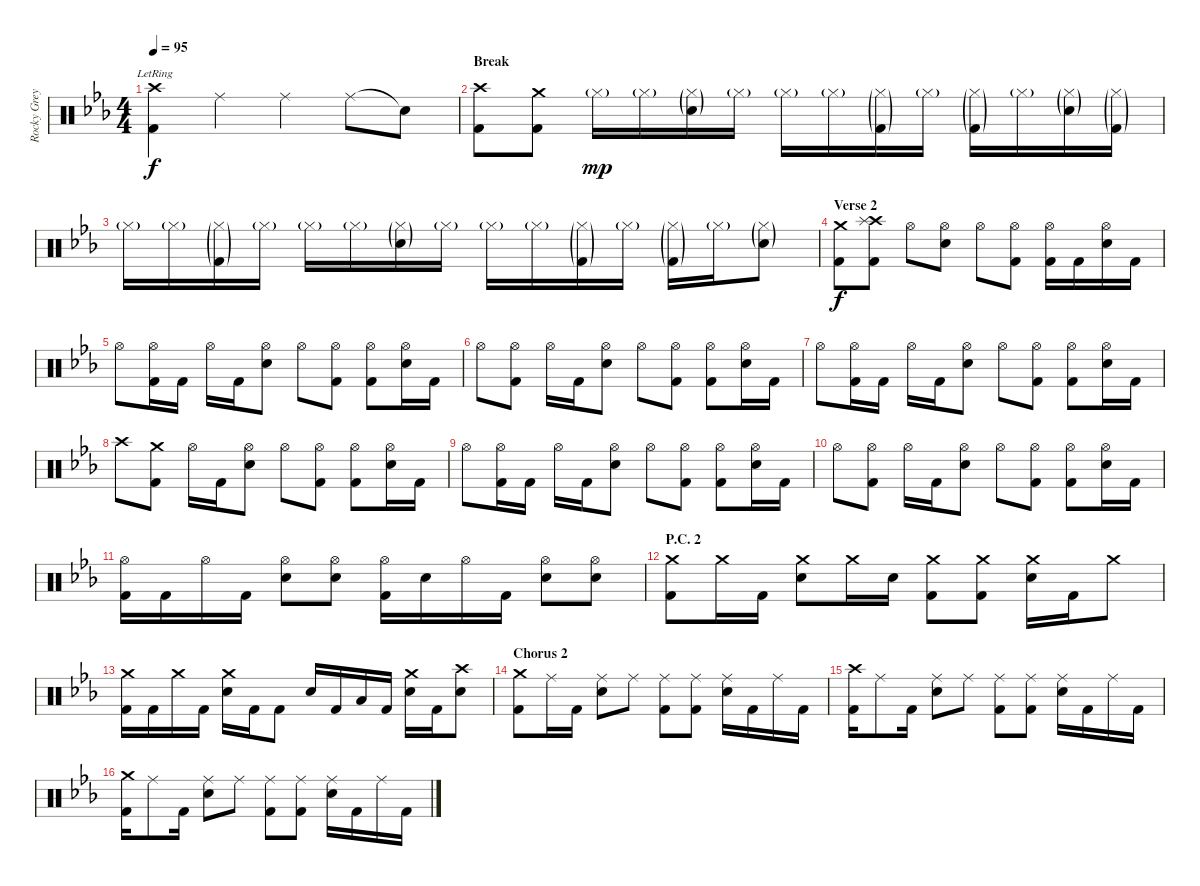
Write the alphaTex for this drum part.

\track ("Rocky Grey" "Rocky Grey") {instrument percussion}
\staff {score}
\articulation defaults
\ts (4 4)
\tempo 95
\clef neutral
\ks eb
("Crash high (hit)"{lr} "Kick (hit) 2").4{dy f} "Ride (middle)".4 "Ride (middle)".4 "Ride (middle)".8 "Snare (hit)"{t}.8 |
\section ("" "Break")
("Crash high (hit)" "Kick (hit) 2").8 ("Crash medium (hit)" "Kick (hit) 2").8 "Hi-Hat (closed)"{g}.16{dy mp} "Hi-Hat (closed)"{g}.16 ("Hi-Hat (closed)"{g} "Snare (hit) 2"{g}).16 "Hi-Hat (closed)"{g}.16 "Hi-Hat (closed)"{g}.16 "Hi-Hat (closed)"{g}.16 ("Hi-Hat (closed)"{g} "Kick (hit) 2"{g}).16 "Hi-Hat (closed)"{g}.16 ("Hi-Hat (closed)"{g} "Kick (hit) 2"{g}).16 "Hi-Hat (closed)"{g}.16 ("Hi-Hat (closed)"{g} "Snare (hit) 2"{g}).16 ("Hi-Hat (closed)"{g} "Kick (hit) 2"{g}).16 |
"Hi-Hat (closed)"{g}.16 "Hi-Hat (closed)"{g}.16 ("Hi-Hat (closed)"{g} "Kick (hit) 2"{g}).16 "Hi-Hat (closed)"{g}.16 "Hi-Hat (closed)"{g}.16 "Hi-Hat (closed)"{g}.16 ("Hi-Hat (closed)"{g} "Snare (hit) 2"{g}).16 "Hi-Hat (closed)"{g}.16 "Hi-Hat (closed)"{g}.16 "Hi-Hat (closed)"{g}.16 ("Hi-Hat (closed)"{g} "Kick (hit) 2"{g}).16 "Hi-Hat (closed)"{g}.16 ("Hi-Hat (closed)"{g} "Kick (hit) 2"{g}).16 "Hi-Hat (closed)"{g}.16 ("Hi-Hat (closed)"{g} "Snare (hit) 2"{g}).8 |
\section ("" "Verse 2")
("Crash medium (hit)" "Kick (hit) 2").8{dy f} ("Crash high (hit)" "Splash (hit)" "Kick (hit) 2").8 "Hi-Hat (open)".8 ("Hi-Hat (open)" "Snare (hit) 2").8 "Hi-Hat (open)".8 ("Hi-Hat (open)" "Kick (hit) 2").8 ("Hi-Hat (open)" "Kick (hit) 2").16 "Kick (hit) 2".16 ("Hi-Hat (open)" "Snare (hit) 2").16 "Kick (hit) 2".16 |
"Hi-Hat (open)".8 ("Hi-Hat (open)" "Kick (hit) 2").16 "Kick (hit) 2".16 "Hi-Hat (open)".16 "Kick (hit) 2".16 ("Hi-Hat (open)" "Snare (hit) 2").8 "Hi-Hat (open)".8 ("Hi-Hat (open)" "Kick (hit) 2").8 ("Hi-Hat (open)" "Kick (hit) 2").8 ("Hi-Hat (open)" "Snare (hit) 2").16 "Kick (hit) 2".16 |
"Hi-Hat (open)".8 ("Hi-Hat (open)" "Kick (hit) 2").8 "Hi-Hat (open)".16 "Kick (hit) 2".16 ("Hi-Hat (open)" "Snare (hit) 2").8 "Hi-Hat (open)".8 ("Hi-Hat (open)" "Kick (hit) 2").8 ("Hi-Hat (open)" "Kick (hit) 2").8 ("Hi-Hat (open)" "Snare (hit) 2").16 "Kick (hit) 2".16 |
"Hi-Hat (open)".8 ("Hi-Hat (open)" "Kick (hit) 2").16 "Kick (hit) 2".16 "Hi-Hat (open)".16 "Kick (hit) 2".16 ("Hi-Hat (open)" "Snare (hit) 2").8 "Hi-Hat (open)".8 ("Hi-Hat (open)" "Kick (hit) 2").8 ("Hi-Hat (open)" "Kick (hit) 2").8 ("Hi-Hat (open)" "Snare (hit) 2").16 "Kick (hit) 2".16 |
"Crash high (hit)".8 ("Crash medium (hit)" "Kick (hit) 2").8 "Hi-Hat (open)".16 "Kick (hit) 2".16 ("Hi-Hat (open)" "Snare (hit) 2").8 "Hi-Hat (open)".8 ("Hi-Hat (open)" "Kick (hit) 2").8 ("Hi-Hat (open)" "Kick (hit) 2").8 ("Hi-Hat (open)" "Snare (hit) 2").16 "Kick (hit) 2".16 |
"Hi-Hat (open)".8 ("Hi-Hat (open)" "Kick (hit) 2").16 "Kick (hit) 2".16 "Hi-Hat (open)".16 "Kick (hit) 2".16 ("Hi-Hat (open)" "Snare (hit) 2").8 "Hi-Hat (open)".8 ("Hi-Hat (open)" "Kick (hit) 2").8 ("Hi-Hat (open)" "Kick (hit) 2").8 ("Hi-Hat (open)" "Snare (hit) 2").16 "Kick (hit) 2".16 |
"Hi-Hat (open)".8 ("Hi-Hat (open)" "Kick (hit) 2").8 "Hi-Hat (open)".16 "Kick (hit) 2".16 ("Hi-Hat (open)" "Snare (hit) 2").8 "Hi-Hat (open)".8 ("Hi-Hat (open)" "Kick (hit) 2").8 ("Hi-Hat (open)" "Kick (hit) 2").8 ("Hi-Hat (open)" "Snare (hit) 2").16 "Kick (hit) 2".16 |
("Hi-Hat (open)" "Kick (hit) 2").16 "Kick (hit) 2".16 "Hi-Hat (open)".16 "Kick (hit) 2".16 ("Hi-Hat (open)" "Snare (hit) 2").8 ("Hi-Hat (open)" "Snare (hit) 2").8 ("Hi-Hat (open)" "Kick (hit) 2").16 "Snare (hit) 2".16 "Hi-Hat (open)".16 "Kick (hit) 2".16 ("Hi-Hat (open)" "Snare (hit) 2").8 ("Hi-Hat (open)" "Snare (hit) 2").8 |
\section ("" "P.C. 2")
("Crash medium (hit)" "Kick (hit) 2").8 "Crash medium (hit)".16 "Kick (hit) 2".16 ("Crash medium (hit)" "Snare (hit) 2").8 "Crash medium (hit)".16 "Snare (hit) 2".16 ("Crash medium (hit)" "Kick (hit) 2").8 ("Crash medium (hit)" "Kick (hit) 2").8 ("Crash medium (hit)" "Snare (hit) 2").16 "Kick (hit) 2".16 "Crash medium (hit)".8 |
("Crash medium (hit)" "Kick (hit) 2").16 "Kick (hit) 2".16 "Crash medium (hit)".16 "Kick (hit) 2".16 ("Crash medium (hit)" "Snare (hit) 2").16 "Kick (hit) 2".16 "Kick (hit) 2".8 "Snare (hit) 2".16 "Kick (hit) 2".16 "Low Floor Tom (hit)".16 "Kick (hit) 2".16 ("Crash medium (hit)" "Snare (hit) 2").16 "Kick (hit) 2".16 ("Crash high (hit)" "Snare (hit) 2").8 |
\section ("" "Chorus 2")
("Crash medium (hit)" "Kick (hit) 2").8 "Ride (middle)".16 "Kick (hit) 2".16 ("Ride (middle)" "Snare (hit) 2").8 "Ride (middle)".8 ("Ride (middle)" "Kick (hit) 2").8 ("Ride (middle)" "Kick (hit) 2").8 ("Ride (middle)" "Snare (hit) 2").16 "Kick (hit) 2".16 "Ride (middle)".16 "Kick (hit) 2".16 |
("Crash high (hit)" "Kick (hit) 2").16 "Ride (middle)".8 "Kick (hit) 2".16 ("Ride (middle)" "Snare (hit) 2").8 "Ride (middle)".8 ("Ride (middle)" "Kick (hit) 2").8 ("Ride (middle)" "Kick (hit) 2").8 ("Ride (middle)" "Snare (hit) 2").16 "Kick (hit) 2".16 "Ride (middle)".16 "Kick (hit) 2".16 |
("Crash medium (hit)" "Kick (hit) 2").16 "Ride (middle)".8 "Kick (hit) 2".16 ("Ride (middle)" "Snare (hit) 2").8 "Ride (middle)".8 ("Ride (middle)" "Kick (hit) 2").8 ("Ride (middle)" "Kick (hit) 2").8 ("Ride (middle)" "Snare (hit) 2").16 "Kick (hit) 2".16 "Ride (middle)".16 "Kick (hit) 2".16
